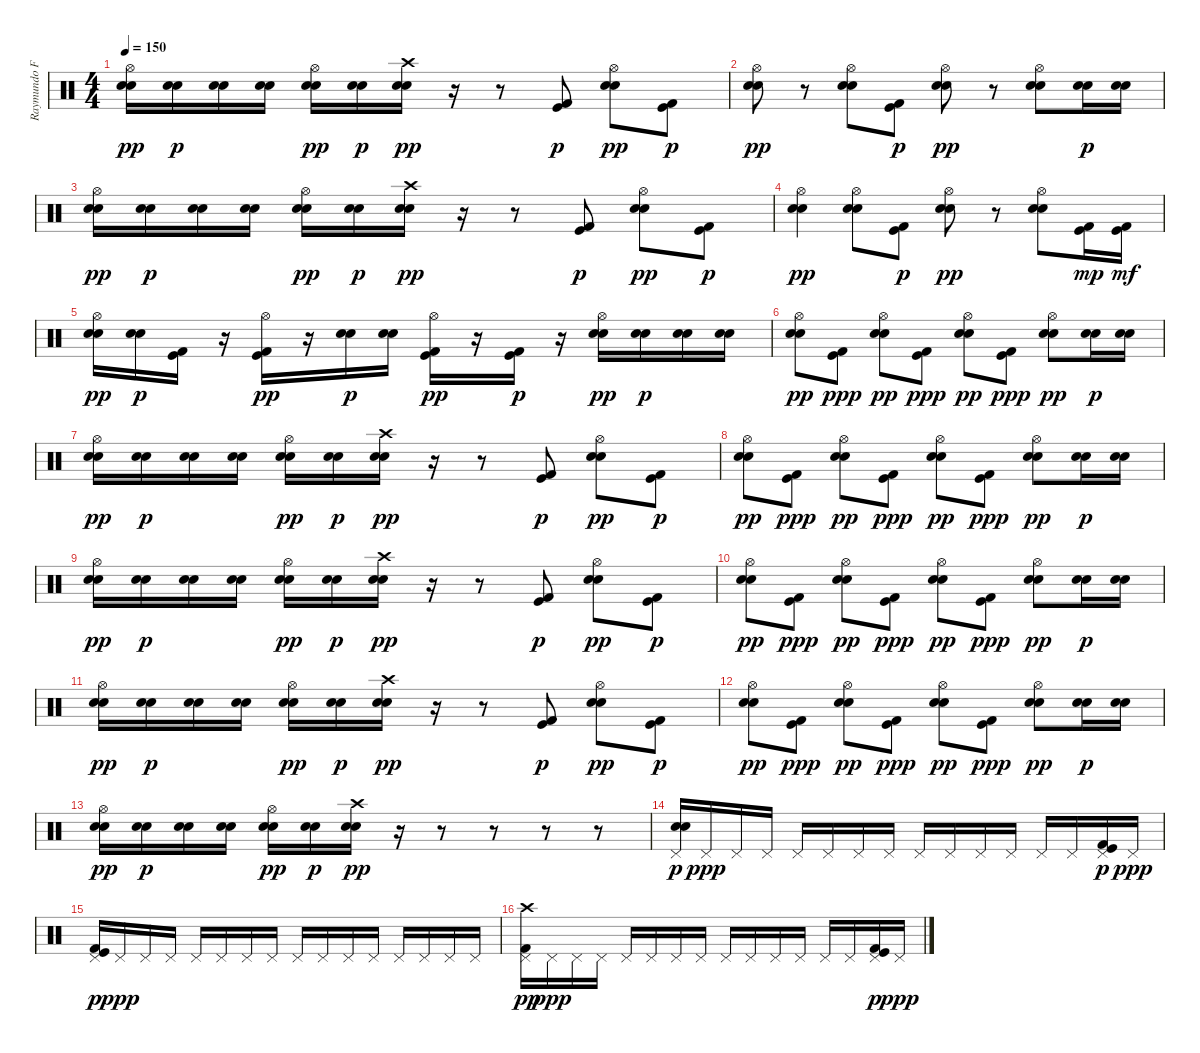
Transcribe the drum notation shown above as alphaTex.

\track ("Raymundo Fajardo (Bateria)" "Raymundo F") {instrument percussion}
\staff {score}
\articulation defaults
\ts (4 4)
\tempo 150
\clef neutral
\ks c
("Electric Snare (hit)" "Snare (hit) 2" "Hi-Hat (open)").16{dy pp} ("Electric Snare (hit)" "Snare (hit) 2").16{dy p} ("Electric Snare (hit)" "Snare (hit) 2").16 ("Electric Snare (hit)" "Snare (hit) 2").16 ("Electric Snare (hit)" "Snare (hit) 2" "Hi-Hat (open)").16{dy pp} ("Electric Snare (hit)" "Snare (hit) 2").16{dy p} ("Electric Snare (hit)" "Snare (hit) 2" "Crash high (hit)").16{dy pp} r.16 r.8 ("Kick (hit) 2" "Kick (hit)").8{dy p} ("Electric Snare (hit)" "Snare (hit) 2" "Hi-Hat (open)").8{dy pp} ("Kick (hit) 2" "Kick (hit)").8{dy p} |
("Electric Snare (hit)" "Snare (hit) 2" "Hi-Hat (open)").8{dy pp} r.8 ("Electric Snare (hit)" "Snare (hit) 2" "Hi-Hat (open)").8 ("Kick (hit) 2" "Kick (hit)").8{dy p} ("Electric Snare (hit)" "Snare (hit) 2" "Hi-Hat (open)").8{dy pp} r.8 ("Electric Snare (hit)" "Snare (hit) 2" "Hi-Hat (open)").8 ("Electric Snare (hit)" "Snare (hit) 2").16{dy p} ("Electric Snare (hit)" "Snare (hit) 2").16 |
("Electric Snare (hit)" "Snare (hit) 2" "Hi-Hat (open)").16{dy pp} ("Electric Snare (hit)" "Snare (hit) 2").16{dy p} ("Electric Snare (hit)" "Snare (hit) 2").16 ("Electric Snare (hit)" "Snare (hit) 2").16 ("Electric Snare (hit)" "Snare (hit) 2" "Hi-Hat (open)").16{dy pp} ("Electric Snare (hit)" "Snare (hit) 2").16{dy p} ("Electric Snare (hit)" "Snare (hit) 2" "Crash high (hit)").16{dy pp} r.16 r.8 ("Kick (hit) 2" "Kick (hit)").8{dy p} ("Electric Snare (hit)" "Snare (hit) 2" "Hi-Hat (open)").8{dy pp} ("Kick (hit) 2" "Kick (hit)").8{dy p} |
("Electric Snare (hit)" "Snare (hit) 2" "Hi-Hat (open)").4{dy pp} ("Electric Snare (hit)" "Snare (hit) 2" "Hi-Hat (open)").8 ("Kick (hit) 2" "Kick (hit)").8{dy p} ("Electric Snare (hit)" "Snare (hit) 2" "Hi-Hat (open)").8{dy pp} r.8 ("Electric Snare (hit)" "Snare (hit) 2" "Hi-Hat (open)").8 ("Kick (hit)" "Kick (hit) 2").16{dy mp} ("Kick (hit)" "Kick (hit) 2").16{dy mf} |
("Electric Snare (hit)" "Snare (hit) 2" "Hi-Hat (open)").16{dy pp} ("Electric Snare (hit)" "Snare (hit) 2").16{dy p} ("Kick (hit) 2" "Kick (hit)").16 r.16 ("Kick (hit) 2" "Kick (hit)" "Hi-Hat (open)").16{dy pp} r.16 ("Electric Snare (hit)" "Snare (hit) 2").16{dy p} ("Electric Snare (hit)" "Snare (hit) 2").16 ("Kick (hit) 2" "Kick (hit)" "Hi-Hat (open)").16{dy pp} r.16 ("Kick (hit) 2" "Kick (hit)").16{dy p} r.16 ("Electric Snare (hit)" "Snare (hit) 2" "Hi-Hat (open)").16{dy pp} ("Electric Snare (hit)" "Snare (hit) 2").16{dy p} ("Electric Snare (hit)" "Snare (hit) 2").16 ("Electric Snare (hit)" "Snare (hit) 2").16 |
("Electric Snare (hit)" "Snare (hit) 2" "Hi-Hat (open)").8{dy pp} ("Kick (hit) 2" "Kick (hit)").8{dy ppp} ("Electric Snare (hit)" "Snare (hit) 2" "Hi-Hat (open)").8{dy pp} ("Kick (hit) 2" "Kick (hit)").8{dy ppp} ("Electric Snare (hit)" "Snare (hit) 2" "Hi-Hat (open)").8{dy pp} ("Kick (hit) 2" "Kick (hit)").8{dy ppp} ("Electric Snare (hit)" "Snare (hit) 2" "Hi-Hat (open)").8{dy pp} ("Electric Snare (hit)" "Snare (hit) 2").16{dy p} ("Electric Snare (hit)" "Snare (hit) 2").16 |
("Electric Snare (hit)" "Snare (hit) 2" "Hi-Hat (open)").16{dy pp} ("Electric Snare (hit)" "Snare (hit) 2").16{dy p} ("Electric Snare (hit)" "Snare (hit) 2").16 ("Electric Snare (hit)" "Snare (hit) 2").16 ("Electric Snare (hit)" "Snare (hit) 2" "Hi-Hat (open)").16{dy pp} ("Electric Snare (hit)" "Snare (hit) 2").16{dy p} ("Electric Snare (hit)" "Snare (hit) 2" "Crash high (hit)").16{dy pp} r.16 r.8 ("Kick (hit) 2" "Kick (hit)").8{dy p} ("Electric Snare (hit)" "Snare (hit) 2" "Hi-Hat (open)").8{dy pp} ("Kick (hit) 2" "Kick (hit)").8{dy p} |
("Electric Snare (hit)" "Snare (hit) 2" "Hi-Hat (open)").8{dy pp} ("Kick (hit) 2" "Kick (hit)").8{dy ppp} ("Electric Snare (hit)" "Snare (hit) 2" "Hi-Hat (open)").8{dy pp} ("Kick (hit) 2" "Kick (hit)").8{dy ppp} ("Electric Snare (hit)" "Snare (hit) 2" "Hi-Hat (open)").8{dy pp} ("Kick (hit) 2" "Kick (hit)").8{dy ppp} ("Electric Snare (hit)" "Snare (hit) 2" "Hi-Hat (open)").8{dy pp} ("Electric Snare (hit)" "Snare (hit) 2").16{dy p} ("Electric Snare (hit)" "Snare (hit) 2").16 |
("Electric Snare (hit)" "Snare (hit) 2" "Hi-Hat (open)").16{dy pp} ("Electric Snare (hit)" "Snare (hit) 2").16{dy p} ("Electric Snare (hit)" "Snare (hit) 2").16 ("Electric Snare (hit)" "Snare (hit) 2").16 ("Electric Snare (hit)" "Snare (hit) 2" "Hi-Hat (open)").16{dy pp} ("Electric Snare (hit)" "Snare (hit) 2").16{dy p} ("Electric Snare (hit)" "Snare (hit) 2" "Crash high (hit)").16{dy pp} r.16 r.8 ("Kick (hit) 2" "Kick (hit)").8{dy p} ("Electric Snare (hit)" "Snare (hit) 2" "Hi-Hat (open)").8{dy pp} ("Kick (hit) 2" "Kick (hit)").8{dy p} |
("Electric Snare (hit)" "Snare (hit) 2" "Hi-Hat (open)").8{dy pp} ("Kick (hit) 2" "Kick (hit)").8{dy ppp} ("Electric Snare (hit)" "Snare (hit) 2" "Hi-Hat (open)").8{dy pp} ("Kick (hit) 2" "Kick (hit)").8{dy ppp} ("Electric Snare (hit)" "Snare (hit) 2" "Hi-Hat (open)").8{dy pp} ("Kick (hit) 2" "Kick (hit)").8{dy ppp} ("Electric Snare (hit)" "Snare (hit) 2" "Hi-Hat (open)").8{dy pp} ("Electric Snare (hit)" "Snare (hit) 2").16{dy p} ("Electric Snare (hit)" "Snare (hit) 2").16 |
("Electric Snare (hit)" "Snare (hit) 2" "Hi-Hat (open)").16{dy pp} ("Electric Snare (hit)" "Snare (hit) 2").16{dy p} ("Electric Snare (hit)" "Snare (hit) 2").16 ("Electric Snare (hit)" "Snare (hit) 2").16 ("Electric Snare (hit)" "Snare (hit) 2" "Hi-Hat (open)").16{dy pp} ("Electric Snare (hit)" "Snare (hit) 2").16{dy p} ("Electric Snare (hit)" "Snare (hit) 2" "Crash high (hit)").16{dy pp} r.16 r.8 ("Kick (hit) 2" "Kick (hit)").8{dy p} ("Electric Snare (hit)" "Snare (hit) 2" "Hi-Hat (open)").8{dy pp} ("Kick (hit) 2" "Kick (hit)").8{dy p} |
("Electric Snare (hit)" "Snare (hit) 2" "Hi-Hat (open)").8{dy pp} ("Kick (hit) 2" "Kick (hit)").8{dy ppp} ("Electric Snare (hit)" "Snare (hit) 2" "Hi-Hat (open)").8{dy pp} ("Kick (hit) 2" "Kick (hit)").8{dy ppp} ("Electric Snare (hit)" "Snare (hit) 2" "Hi-Hat (open)").8{dy pp} ("Kick (hit) 2" "Kick (hit)").8{dy ppp} ("Electric Snare (hit)" "Snare (hit) 2" "Hi-Hat (open)").8{dy pp} ("Electric Snare (hit)" "Snare (hit) 2").16{dy p} ("Electric Snare (hit)" "Snare (hit) 2").16 |
("Electric Snare (hit)" "Snare (hit) 2" "Hi-Hat (open)").16{dy pp} ("Electric Snare (hit)" "Snare (hit) 2").16{dy p} ("Electric Snare (hit)" "Snare (hit) 2").16 ("Electric Snare (hit)" "Snare (hit) 2").16 ("Electric Snare (hit)" "Snare (hit) 2" "Hi-Hat (open)").16{dy pp} ("Electric Snare (hit)" "Snare (hit) 2").16{dy p} ("Electric Snare (hit)" "Snare (hit) 2" "Crash high (hit)").16{dy pp} r.16 r.8 r.8 r.8 r.8 |
("Pedal Hi-Hat (hit)" "Electric Snare (hit)" "Snare (hit) 2").16{dy p} "Pedal Hi-Hat (hit)".16{dy ppp} "Pedal Hi-Hat (hit)".16 "Pedal Hi-Hat (hit)".16 "Pedal Hi-Hat (hit)".16 "Pedal Hi-Hat (hit)".16 "Pedal Hi-Hat (hit)".16 "Pedal Hi-Hat (hit)".16 "Pedal Hi-Hat (hit)".16 "Pedal Hi-Hat (hit)".16 "Pedal Hi-Hat (hit)".16 "Pedal Hi-Hat (hit)".16 "Pedal Hi-Hat (hit)".16 "Pedal Hi-Hat (hit)".16 ("Pedal Hi-Hat (hit)" "Kick (hit) 2" "Kick (hit)").16{dy p} "Pedal Hi-Hat (hit)".16{dy ppp} |
("Pedal Hi-Hat (hit)" "Kick (hit) 2" "Kick (hit)").16{dy p} "Pedal Hi-Hat (hit)".16{dy ppp} "Pedal Hi-Hat (hit)".16 "Pedal Hi-Hat (hit)".16 "Pedal Hi-Hat (hit)".16 "Pedal Hi-Hat (hit)".16 "Pedal Hi-Hat (hit)".16 "Pedal Hi-Hat (hit)".16 "Pedal Hi-Hat (hit)".16 "Pedal Hi-Hat (hit)".16 "Pedal Hi-Hat (hit)".16 "Pedal Hi-Hat (hit)".16 "Pedal Hi-Hat (hit)".16 "Pedal Hi-Hat (hit)".16 "Pedal Hi-Hat (hit)".16 "Pedal Hi-Hat (hit)".16 |
("Pedal Hi-Hat (hit)" "Crash high (hit)" "Kick (hit) 2").16{dy pp} "Pedal Hi-Hat (hit)".16{dy ppp} "Pedal Hi-Hat (hit)".16 "Pedal Hi-Hat (hit)".16 "Pedal Hi-Hat (hit)".16 "Pedal Hi-Hat (hit)".16 "Pedal Hi-Hat (hit)".16 "Pedal Hi-Hat (hit)".16 "Pedal Hi-Hat (hit)".16 "Pedal Hi-Hat (hit)".16 "Pedal Hi-Hat (hit)".16 "Pedal Hi-Hat (hit)".16 "Pedal Hi-Hat (hit)".16 "Pedal Hi-Hat (hit)".16 ("Pedal Hi-Hat (hit)" "Kick (hit) 2" "Kick (hit)").16{dy p} "Pedal Hi-Hat (hit)".16{dy ppp}
